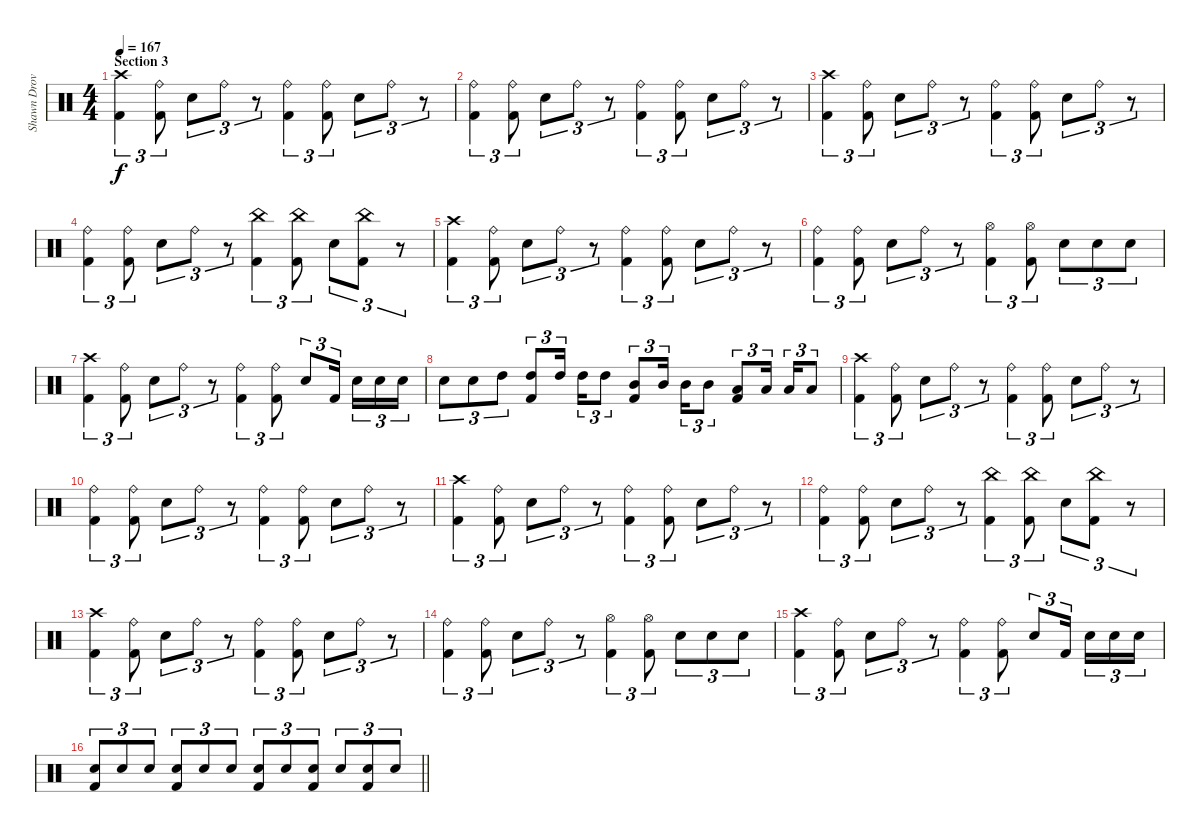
\track ("Shawn Drover" "Shawn Drov") {instrument percussion}
\staff {score}
\articulation defaults
\ts (4 4)
\section ("" "Section 3")
\tempo 167
\clef neutral
\ks c
("Kick (hit) 2" "Crash high (hit)").4{tu (3 2) dy f} ("Kick (hit) 2" "Ride (bell)").8{tu (3 2)} "Snare (hit) 2".8{tu (3 2)} "Ride (bell)".8{tu (3 2)} r.8{tu (3 2)} ("Kick (hit) 2" "Ride (bell)").4{tu (3 2)} ("Kick (hit) 2" "Ride (bell)").8{tu (3 2)} "Snare (hit) 2".8{tu (3 2)} "Ride (bell)".8{tu (3 2)} r.8{tu (3 2)} |
("Kick (hit) 2" "Ride (bell)").4{tu (3 2)} ("Kick (hit) 2" "Ride (bell)").8{tu (3 2)} "Snare (hit) 2".8{tu (3 2)} "Ride (bell)".8{tu (3 2)} r.8{tu (3 2)} ("Kick (hit) 2" "Ride (bell)").4{tu (3 2)} ("Kick (hit) 2" "Ride (bell)").8{tu (3 2)} "Snare (hit) 2".8{tu (3 2)} "Ride (bell)".8{tu (3 2)} r.8{tu (3 2)} |
("Kick (hit) 2" "Crash high (hit)").4{tu (3 2)} ("Kick (hit) 2" "Ride (bell)").8{tu (3 2)} "Snare (hit) 2".8{tu (3 2)} "Ride (bell)".8{tu (3 2)} r.8{tu (3 2)} ("Kick (hit) 2" "Ride (bell)").4{tu (3 2)} ("Kick (hit) 2" "Ride (bell)").8{tu (3 2)} "Snare (hit) 2".8{tu (3 2)} "Ride (bell)".8{tu (3 2)} r.8{tu (3 2)} |
("Kick (hit) 2" "Ride (bell)").4{tu (3 2)} ("Kick (hit) 2" "Ride (bell)").8{tu (3 2)} "Snare (hit) 2".8{tu (3 2)} "Ride (bell)".8{tu (3 2)} r.8{tu (3 2)} ("Kick (hit) 2" "China (hit)").4{tu (3 2)} ("Kick (hit) 2" "China (hit)").8{tu (3 2)} "Snare (hit) 2".8{tu (3 2)} ("Kick (hit) 2" "China (hit)").8{tu (3 2)} r.8{tu (3 2)} |
("Kick (hit) 2" "Crash high (hit)").4{tu (3 2)} ("Kick (hit) 2" "Ride (bell)").8{tu (3 2)} "Snare (hit) 2".8{tu (3 2)} "Ride (bell)".8{tu (3 2)} r.8{tu (3 2)} ("Kick (hit) 2" "Ride (bell)").4{tu (3 2)} ("Kick (hit) 2" "Ride (bell)").8{tu (3 2)} "Snare (hit) 2".8{tu (3 2)} "Ride (bell)".8{tu (3 2)} r.8{tu (3 2)} |
("Kick (hit) 2" "Ride (bell)").4{tu (3 2)} ("Kick (hit) 2" "Ride (bell)").8{tu (3 2)} "Snare (hit) 2".8{tu (3 2)} "Ride (bell)".8{tu (3 2)} r.8{tu (3 2)} ("Kick (hit) 2" "Hi-Hat (open)").4{tu (3 2)} ("Kick (hit) 2" "Hi-Hat (open)").8{tu (3 2)} "Snare (hit) 2".8{tu (3 2)} "Snare (hit) 2".8{tu (3 2)} "Snare (hit) 2".8{tu (3 2)} |
("Kick (hit) 2" "Crash high (hit)").4{tu (3 2)} ("Kick (hit) 2" "Ride (bell)").8{tu (3 2)} "Snare (hit) 2".8{tu (3 2)} "Ride (bell)".8{tu (3 2)} r.8{tu (3 2)} ("Kick (hit) 2" "Ride (bell)").4{tu (3 2)} ("Kick (hit) 2" "Ride (bell)").8{tu (3 2)} "Snare (hit) 2".8{tu (3 2)} "Kick (hit) 2".16{tu (3 2) beam splitsecondary} "Snare (hit) 2".16{tu (3 2)} "Snare (hit) 2".16{tu (3 2)} "Snare (hit) 2".16{tu (3 2)} |
"Snare (hit) 2".8{tu (3 2)} "Snare (hit) 2".8{tu (3 2)} "High Tom (hit)".8{tu (3 2)} ("Kick (hit) 2" "High Tom (hit)").8{tu (3 2)} "High Tom (hit)".16{tu (3 2) beam splitsecondary} "High Tom (hit)".16{tu (3 2)} "High Tom (hit)".8{tu (3 2)} ("Kick (hit) 2" "Mid Tom (hit)").8{tu (3 2)} "Mid Tom (hit)".16{tu (3 2) beam splitsecondary} "Mid Tom (hit)".16{tu (3 2)} "Mid Tom (hit)".8{tu (3 2)} ("Kick (hit) 2" "Low Tom (hit)").8{tu (3 2)} "Low Tom (hit)".16{tu (3 2) beam splitsecondary} "Low Tom (hit)".16{tu (3 2)} "Low Tom (hit)".8{tu (3 2)} |
("Kick (hit) 2" "Crash high (hit)").4{tu (3 2)} ("Kick (hit) 2" "Ride (bell)").8{tu (3 2)} "Snare (hit) 2".8{tu (3 2)} "Ride (bell)".8{tu (3 2)} r.8{tu (3 2)} ("Kick (hit) 2" "Ride (bell)").4{tu (3 2)} ("Kick (hit) 2" "Ride (bell)").8{tu (3 2)} "Snare (hit) 2".8{tu (3 2)} "Ride (bell)".8{tu (3 2)} r.8{tu (3 2)} |
("Kick (hit) 2" "Ride (bell)").4{tu (3 2)} ("Kick (hit) 2" "Ride (bell)").8{tu (3 2)} "Snare (hit) 2".8{tu (3 2)} "Ride (bell)".8{tu (3 2)} r.8{tu (3 2)} ("Kick (hit) 2" "Ride (bell)").4{tu (3 2)} ("Kick (hit) 2" "Ride (bell)").8{tu (3 2)} "Snare (hit) 2".8{tu (3 2)} "Ride (bell)".8{tu (3 2)} r.8{tu (3 2)} |
("Kick (hit) 2" "Crash high (hit)").4{tu (3 2)} ("Kick (hit) 2" "Ride (bell)").8{tu (3 2)} "Snare (hit) 2".8{tu (3 2)} "Ride (bell)".8{tu (3 2)} r.8{tu (3 2)} ("Kick (hit) 2" "Ride (bell)").4{tu (3 2)} ("Kick (hit) 2" "Ride (bell)").8{tu (3 2)} "Snare (hit) 2".8{tu (3 2)} "Ride (bell)".8{tu (3 2)} r.8{tu (3 2)} |
("Kick (hit) 2" "Ride (bell)").4{tu (3 2)} ("Kick (hit) 2" "Ride (bell)").8{tu (3 2)} "Snare (hit) 2".8{tu (3 2)} "Ride (bell)".8{tu (3 2)} r.8{tu (3 2)} ("Kick (hit) 2" "China (hit)").4{tu (3 2)} ("Kick (hit) 2" "China (hit)").8{tu (3 2)} "Snare (hit) 2".8{tu (3 2)} ("Kick (hit) 2" "China (hit)").8{tu (3 2)} r.8{tu (3 2)} |
("Kick (hit) 2" "Crash high (hit)").4{tu (3 2)} ("Kick (hit) 2" "Ride (bell)").8{tu (3 2)} "Snare (hit) 2".8{tu (3 2)} "Ride (bell)".8{tu (3 2)} r.8{tu (3 2)} ("Kick (hit) 2" "Ride (bell)").4{tu (3 2)} ("Kick (hit) 2" "Ride (bell)").8{tu (3 2)} "Snare (hit) 2".8{tu (3 2)} "Ride (bell)".8{tu (3 2)} r.8{tu (3 2)} |
("Kick (hit) 2" "Ride (bell)").4{tu (3 2)} ("Kick (hit) 2" "Ride (bell)").8{tu (3 2)} "Snare (hit) 2".8{tu (3 2)} "Ride (bell)".8{tu (3 2)} r.8{tu (3 2)} ("Kick (hit) 2" "Hi-Hat (open)").4{tu (3 2)} ("Kick (hit) 2" "Hi-Hat (open)").8{tu (3 2)} "Snare (hit) 2".8{tu (3 2)} "Snare (hit) 2".8{tu (3 2)} "Snare (hit) 2".8{tu (3 2)} |
("Kick (hit) 2" "Crash high (hit)").4{tu (3 2)} ("Kick (hit) 2" "Ride (bell)").8{tu (3 2)} "Snare (hit) 2".8{tu (3 2)} "Ride (bell)".8{tu (3 2)} r.8{tu (3 2)} ("Kick (hit) 2" "Ride (bell)").4{tu (3 2)} ("Kick (hit) 2" "Ride (bell)").8{tu (3 2)} "Snare (hit) 2".8{tu (3 2)} "Kick (hit) 2".16{tu (3 2) beam splitsecondary} "Snare (hit) 2".16{tu (3 2)} "Snare (hit) 2".16{tu (3 2)} "Snare (hit) 2".16{tu (3 2)} |
\barLineRight lightlight
("Kick (hit) 2" "Snare (hit) 2").8{tu (3 2)} "Snare (hit) 2".8{tu (3 2)} "Snare (hit) 2".8{tu (3 2)} ("Kick (hit) 2" "Snare (hit) 2").8{tu (3 2)} "Snare (hit) 2".8{tu (3 2)} "Snare (hit) 2".8{tu (3 2)} ("Kick (hit) 2" "Snare (hit) 2").8{tu (3 2)} "Snare (hit) 2".8{tu (3 2)} ("Kick (hit) 2" "Snare (hit) 2").8{tu (3 2)} "Snare (hit) 2".8{tu (3 2)} ("Kick (hit) 2" "Snare (hit) 2").8{tu (3 2)} "Snare (hit) 2".8{tu (3 2)}
